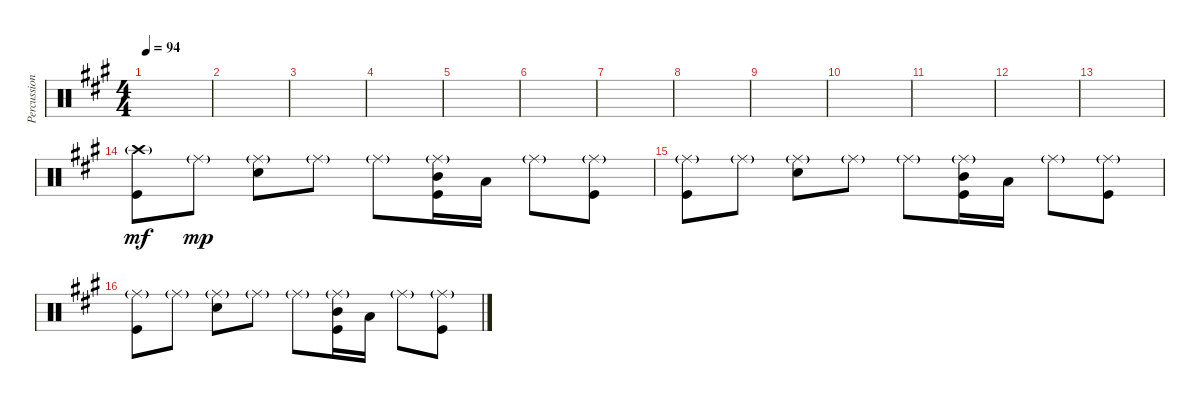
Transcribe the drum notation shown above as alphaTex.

\track ("Percussion" "Percussion") {instrument percussion}
\staff {score}
\articulation defaults
\ts (4 4)
\tempo 94
\clef neutral
\ks a
|
|
|
|
|
|
|
|
|
|
|
|
|
("Crash high (hit)"{g} "Kick (hit)").8{dy mf} "Ride (middle)"{g}.8{dy mp} ("Ride (middle)"{g} "Electric Snare (hit)").8 "Ride (middle)"{g}.8 "Ride (middle)"{g}.8 ("Ride (middle)"{g} "Mid Tom (hit)" "Kick (hit)").16 "Low Tom (hit)".16 "Ride (middle)"{g}.8 ("Ride (middle)"{g} "Kick (hit)").8 |
("Ride (middle)"{g} "Kick (hit)").8 "Ride (middle)"{g}.8 ("Ride (middle)"{g} "Electric Snare (hit)").8 "Ride (middle)"{g}.8 "Ride (middle)"{g}.8 ("Ride (middle)"{g} "Mid Tom (hit)" "Kick (hit)").16 "Low Tom (hit)".16 "Ride (middle)"{g}.8 ("Ride (middle)"{g} "Kick (hit)").8 |
("Ride (middle)"{g} "Kick (hit)").8 "Ride (middle)"{g}.8 ("Ride (middle)"{g} "Electric Snare (hit)").8 "Ride (middle)"{g}.8 "Ride (middle)"{g}.8 ("Ride (middle)"{g} "Mid Tom (hit)" "Kick (hit)").16 "Low Tom (hit)".16 "Ride (middle)"{g}.8 ("Ride (middle)"{g} "Kick (hit)").8
